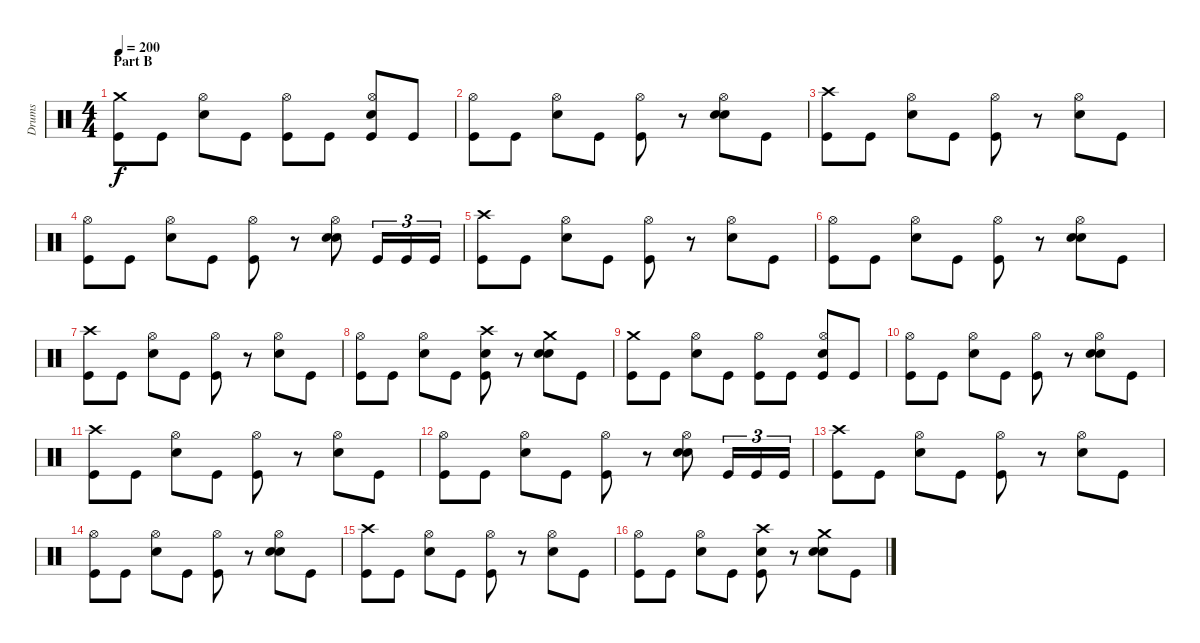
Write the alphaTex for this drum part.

\track ("Drums" "Drums") {instrument percussion}
\staff {score}
\articulation defaults
\ts (4 4)
\section ("" "Part B")
\tempo 200
\clef neutral
\ks c
("Crash medium (hit)" "Kick (hit)").8{dy f} "Kick (hit)".8 ("Hi-Hat (open)" "Snare (hit) 2").8 "Kick (hit)".8 ("Hi-Hat (open)" "Kick (hit)").8 "Kick (hit)".8 ("Hi-Hat (open)" "Snare (hit) 2" "Kick (hit)").8 "Kick (hit)".8 |
("Hi-Hat (open)" "Kick (hit)").8 "Kick (hit)".8 ("Hi-Hat (open)" "Snare (hit) 2").8 "Kick (hit)".8 ("Hi-Hat (open)" "Kick (hit)").8 r.8 ("Hi-Hat (open)" "Hand Clap (hit)" "Snare (hit) 2").8 "Kick (hit)".8 |
("Crash high (hit)" "Kick (hit)").8 "Kick (hit)".8 ("Hi-Hat (open)" "Snare (hit) 2").8 "Kick (hit)".8 ("Hi-Hat (open)" "Kick (hit)").8 r.8 ("Hi-Hat (open)" "Snare (hit) 2").8 "Kick (hit)".8 |
("Hi-Hat (open)" "Kick (hit)").8 "Kick (hit)".8 ("Hi-Hat (open)" "Snare (hit) 2").8 "Kick (hit)".8 ("Hi-Hat (open)" "Kick (hit)").8 r.8 ("Hi-Hat (open)" "Hand Clap (hit)" "Snare (hit) 2").8 "Kick (hit)".16{tu (3 2)} "Kick (hit)".16{tu (3 2)} "Kick (hit)".16{tu (3 2)} |
("Crash high (hit)" "Kick (hit)").8 "Kick (hit)".8 ("Hi-Hat (open)" "Snare (hit) 2").8 "Kick (hit)".8 ("Hi-Hat (open)" "Kick (hit)").8 r.8 ("Hi-Hat (open)" "Snare (hit) 2").8 "Kick (hit)".8 |
("Hi-Hat (open)" "Kick (hit)").8 "Kick (hit)".8 ("Hi-Hat (open)" "Snare (hit) 2").8 "Kick (hit)".8 ("Hi-Hat (open)" "Kick (hit)").8 r.8 ("Hi-Hat (open)" "Hand Clap (hit)" "Snare (hit) 2").8 "Kick (hit)".8 |
("Crash high (hit)" "Kick (hit)").8 "Kick (hit)".8 ("Hi-Hat (open)" "Snare (hit) 2").8 "Kick (hit)".8 ("Hi-Hat (open)" "Kick (hit)").8 r.8 ("Hi-Hat (open)" "Snare (hit) 2").8 "Kick (hit)".8 |
("Hi-Hat (open)" "Kick (hit)").8 "Kick (hit)".8 ("Hi-Hat (open)" "Snare (hit) 2").8 "Kick (hit)".8 ("Crash high (hit)" "Hand Clap (hit)" "Kick (hit)").8 r.8 ("Crash medium (hit)" "Hand Clap (hit)" "Snare (hit) 2").8 "Kick (hit)".8 |
("Crash medium (hit)" "Kick (hit)").8 "Kick (hit)".8 ("Hi-Hat (open)" "Snare (hit) 2").8 "Kick (hit)".8 ("Hi-Hat (open)" "Kick (hit)").8 "Kick (hit)".8 ("Hi-Hat (open)" "Snare (hit) 2" "Kick (hit)").8 "Kick (hit)".8 |
("Hi-Hat (open)" "Kick (hit)").8 "Kick (hit)".8 ("Hi-Hat (open)" "Snare (hit) 2").8 "Kick (hit)".8 ("Hi-Hat (open)" "Kick (hit)").8 r.8 ("Hi-Hat (open)" "Hand Clap (hit)" "Snare (hit) 2").8 "Kick (hit)".8 |
("Crash high (hit)" "Kick (hit)").8 "Kick (hit)".8 ("Hi-Hat (open)" "Snare (hit) 2").8 "Kick (hit)".8 ("Hi-Hat (open)" "Kick (hit)").8 r.8 ("Hi-Hat (open)" "Snare (hit) 2").8 "Kick (hit)".8 |
("Hi-Hat (open)" "Kick (hit)").8 "Kick (hit)".8 ("Hi-Hat (open)" "Snare (hit) 2").8 "Kick (hit)".8 ("Hi-Hat (open)" "Kick (hit)").8 r.8 ("Hi-Hat (open)" "Hand Clap (hit)" "Snare (hit) 2").8 "Kick (hit)".16{tu (3 2)} "Kick (hit)".16{tu (3 2)} "Kick (hit)".16{tu (3 2)} |
("Crash high (hit)" "Kick (hit)").8 "Kick (hit)".8 ("Hi-Hat (open)" "Snare (hit) 2").8 "Kick (hit)".8 ("Hi-Hat (open)" "Kick (hit)").8 r.8 ("Hi-Hat (open)" "Snare (hit) 2").8 "Kick (hit)".8 |
("Hi-Hat (open)" "Kick (hit)").8 "Kick (hit)".8 ("Hi-Hat (open)" "Snare (hit) 2").8 "Kick (hit)".8 ("Hi-Hat (open)" "Kick (hit)").8 r.8 ("Hi-Hat (open)" "Hand Clap (hit)" "Snare (hit) 2").8 "Kick (hit)".8 |
("Crash high (hit)" "Kick (hit)").8 "Kick (hit)".8 ("Hi-Hat (open)" "Snare (hit) 2").8 "Kick (hit)".8 ("Hi-Hat (open)" "Kick (hit)").8 r.8 ("Hi-Hat (open)" "Snare (hit) 2").8 "Kick (hit)".8 |
("Hi-Hat (open)" "Kick (hit)").8 "Kick (hit)".8 ("Hi-Hat (open)" "Snare (hit) 2").8 "Kick (hit)".8 ("Crash high (hit)" "Hand Clap (hit)" "Kick (hit)").8 r.8 ("Crash medium (hit)" "Hand Clap (hit)" "Snare (hit) 2").8 "Kick (hit)".8
